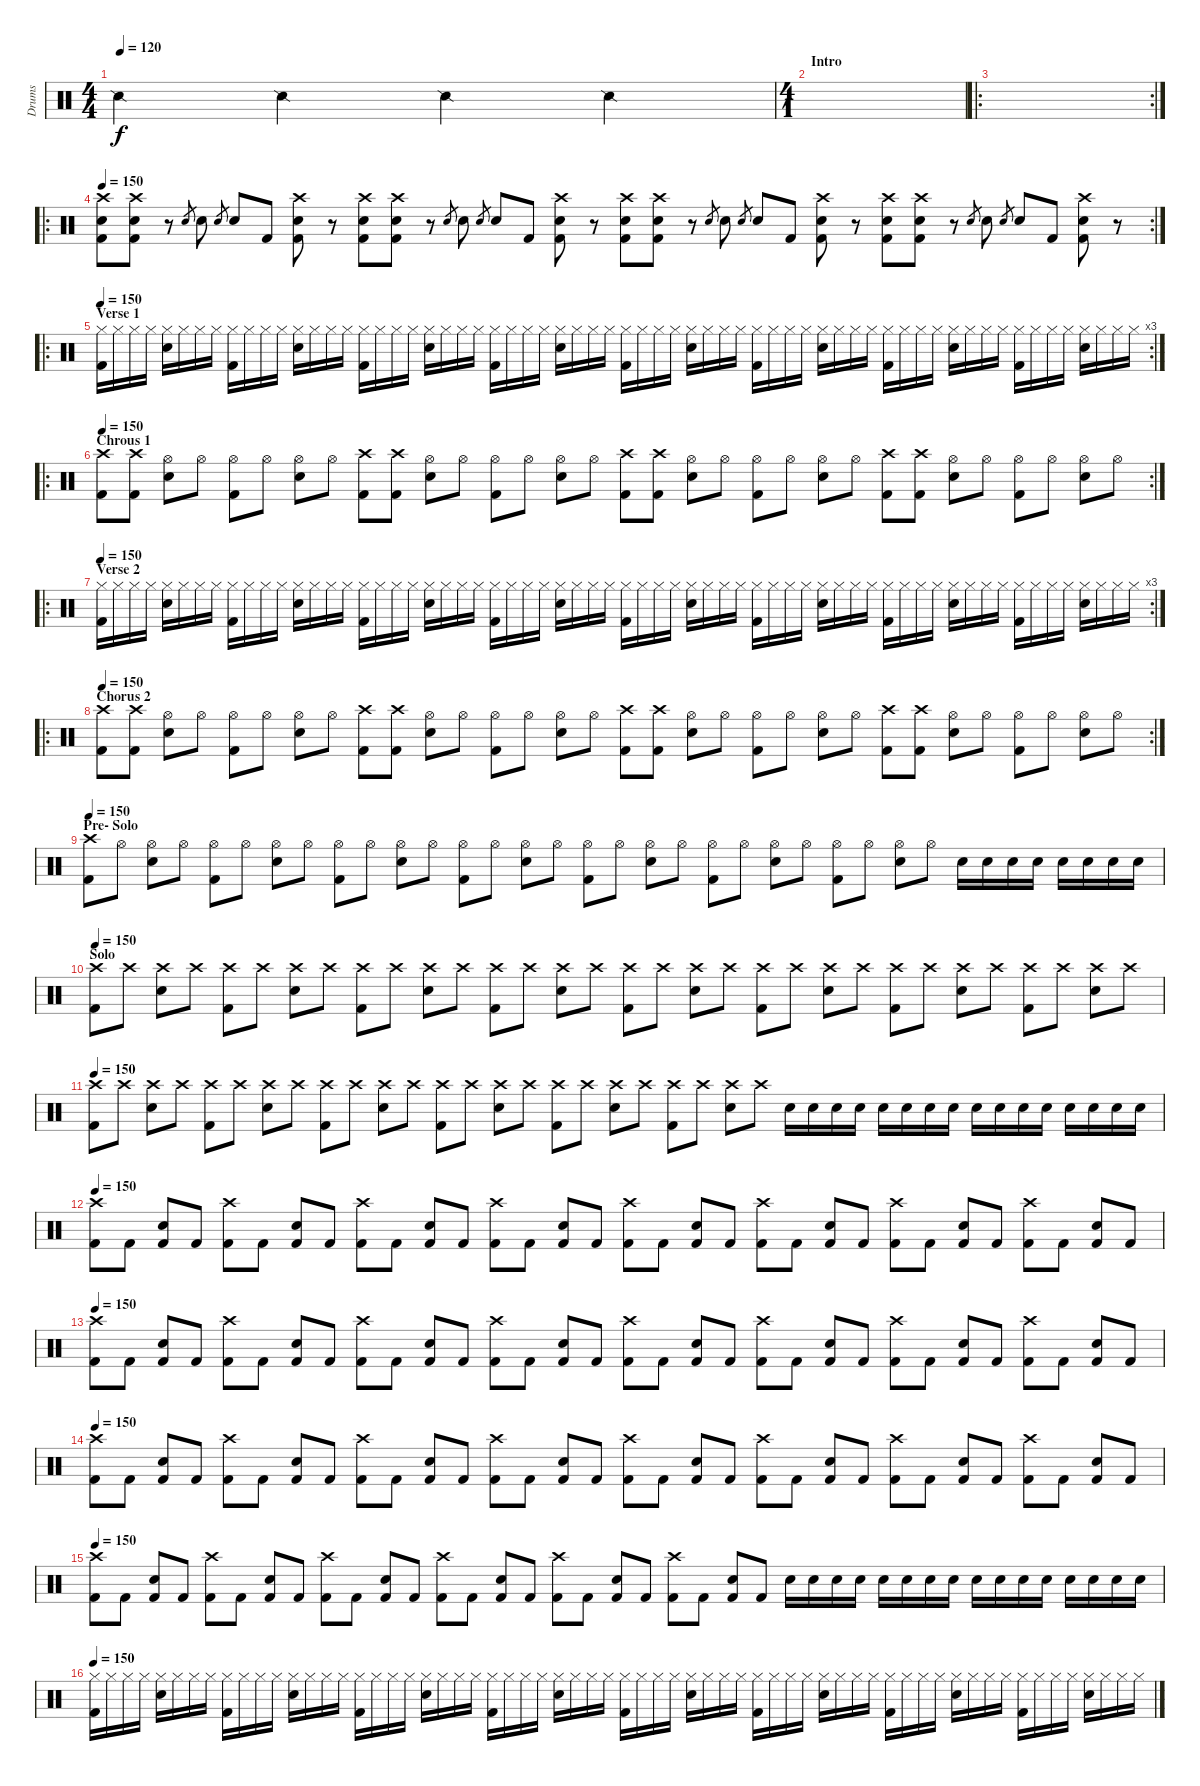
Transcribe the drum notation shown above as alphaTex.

\track ("Drums" "Drums") {instrument percussion}
\staff {score}
\articulation defaults
\ts (4 4)
\tempo 120
\clef neutral
\ks c "Snare (side stick) 2".4{dy f} "Snare (side stick) 2".4 "Snare (side stick) 2".4 "Snare (side stick) 2".4
|
\ts (4 1)
\section ("" "Intro")
|
\ro
\rc 2
|
\ro
\rc 2
\tempo 150
("Crash high (hit)" "Electric Snare (hit)" "Kick (hit) 2").8 ("Crash high (hit)" "Electric Snare (hit)" "Kick (hit) 2").8 r.8 "Electric Snare (hit)".8{gr} "Electric Snare (hit)".8 "Electric Snare (hit)".8{gr} "Electric Snare (hit)".8 "Kick (hit) 2".8 ("Crash high (hit)" "Kick (hit) 2" "Electric Snare (hit)").8 r.8 ("Crash high (hit)" "Electric Snare (hit)" "Kick (hit) 2").8 ("Crash high (hit)" "Electric Snare (hit)" "Kick (hit) 2").8 r.8 "Electric Snare (hit)".8{gr} "Electric Snare (hit)".8 "Electric Snare (hit)".8{gr} "Electric Snare (hit)".8 "Kick (hit) 2".8 ("Crash high (hit)" "Kick (hit) 2" "Electric Snare (hit)").8 r.8 ("Crash high (hit)" "Electric Snare (hit)" "Kick (hit) 2").8 ("Crash high (hit)" "Electric Snare (hit)" "Kick (hit) 2").8 r.8 "Electric Snare (hit)".8{gr} "Electric Snare (hit)".8 "Electric Snare (hit)".8{gr} "Electric Snare (hit)".8 "Kick (hit) 2".8 ("Crash high (hit)" "Kick (hit) 2" "Electric Snare (hit)").8 r.8 ("Crash high (hit)" "Electric Snare (hit)" "Kick (hit) 2").8 ("Crash high (hit)" "Electric Snare (hit)" "Kick (hit) 2").8 r.8 "Electric Snare (hit)".8{gr} "Electric Snare (hit)".8 "Electric Snare (hit)".8{gr} "Electric Snare (hit)".8 "Kick (hit) 2".8 ("Crash high (hit)" "Electric Snare (hit)" "Kick (hit) 2").8 r.8 |
\ro
\rc 3
\section ("" "Verse 1")
\tempo 150
("Hi-Hat (closed)" "Kick (hit) 2").16 "Hi-Hat (closed)".16 "Hi-Hat (closed)".16 "Hi-Hat (closed)".16 ("Hi-Hat (closed)" "Electric Snare (hit)").16 "Hi-Hat (closed)".16 "Hi-Hat (closed)".16 "Hi-Hat (closed)".16 ("Hi-Hat (closed)" "Kick (hit) 2").16 "Hi-Hat (closed)".16 "Hi-Hat (closed)".16 "Hi-Hat (closed)".16 ("Hi-Hat (closed)" "Electric Snare (hit)").16 "Hi-Hat (closed)".16 "Hi-Hat (closed)".16 "Hi-Hat (closed)".16 ("Hi-Hat (closed)" "Kick (hit) 2").16 "Hi-Hat (closed)".16 "Hi-Hat (closed)".16 "Hi-Hat (closed)".16 ("Hi-Hat (closed)" "Electric Snare (hit)").16 "Hi-Hat (closed)".16 "Hi-Hat (closed)".16 "Hi-Hat (closed)".16 ("Hi-Hat (closed)" "Kick (hit) 2").16 "Hi-Hat (closed)".16 "Hi-Hat (closed)".16 "Hi-Hat (closed)".16 ("Hi-Hat (closed)" "Electric Snare (hit)").16 "Hi-Hat (closed)".16 "Hi-Hat (closed)".16 "Hi-Hat (closed)".16 ("Hi-Hat (closed)" "Kick (hit) 2").16 "Hi-Hat (closed)".16 "Hi-Hat (closed)".16 "Hi-Hat (closed)".16 ("Hi-Hat (closed)" "Electric Snare (hit)").16 "Hi-Hat (closed)".16 "Hi-Hat (closed)".16 "Hi-Hat (closed)".16 ("Hi-Hat (closed)" "Kick (hit) 2").16 "Hi-Hat (closed)".16 "Hi-Hat (closed)".16 "Hi-Hat (closed)".16 ("Hi-Hat (closed)" "Electric Snare (hit)").16 "Hi-Hat (closed)".16 "Hi-Hat (closed)".16 "Hi-Hat (closed)".16 ("Hi-Hat (closed)" "Kick (hit) 2").16 "Hi-Hat (closed)".16 "Hi-Hat (closed)".16 "Hi-Hat (closed)".16 ("Hi-Hat (closed)" "Electric Snare (hit)").16 "Hi-Hat (closed)".16 "Hi-Hat (closed)".16 "Hi-Hat (closed)".16 ("Hi-Hat (closed)" "Kick (hit) 2").16 "Hi-Hat (closed)".16 "Hi-Hat (closed)".16 "Hi-Hat (closed)".16 ("Hi-Hat (closed)" "Electric Snare (hit)").16 "Hi-Hat (closed)".16 "Hi-Hat (closed)".16 "Hi-Hat (closed)".16 |
\ro
\rc 2
\section ("" "Chrous 1")
\tempo 150
("Crash high (hit)" "Kick (hit) 2").8 ("Crash high (hit)" "Kick (hit) 2").8 ("Hi-Hat (open)" "Electric Snare (hit)").8 "Hi-Hat (open)".8 ("Hi-Hat (open)" "Kick (hit) 2").8 "Hi-Hat (open)".8 ("Hi-Hat (open)" "Electric Snare (hit)").8 "Hi-Hat (open)".8 ("Crash high (hit)" "Kick (hit) 2").8 ("Crash high (hit)" "Kick (hit) 2").8 ("Hi-Hat (open)" "Electric Snare (hit)").8 "Hi-Hat (open)".8 ("Hi-Hat (open)" "Kick (hit) 2").8 "Hi-Hat (open)".8 ("Hi-Hat (open)" "Electric Snare (hit)").8 "Hi-Hat (open)".8 ("Crash high (hit)" "Kick (hit) 2").8 ("Crash high (hit)" "Kick (hit) 2").8 ("Hi-Hat (open)" "Electric Snare (hit)").8 "Hi-Hat (open)".8 ("Hi-Hat (open)" "Kick (hit) 2").8 "Hi-Hat (open)".8 ("Hi-Hat (open)" "Electric Snare (hit)").8 "Hi-Hat (open)".8 ("Crash high (hit)" "Kick (hit) 2").8 ("Crash high (hit)" "Kick (hit) 2").8 ("Hi-Hat (open)" "Electric Snare (hit)").8 "Hi-Hat (open)".8 ("Hi-Hat (open)" "Kick (hit) 2").8 "Hi-Hat (open)".8 ("Hi-Hat (open)" "Electric Snare (hit)").8 "Hi-Hat (open)".8 |
\ro
\rc 3
\section ("" "Verse 2")
\tempo 150
("Hi-Hat (closed)" "Kick (hit) 2").16 "Hi-Hat (closed)".16 "Hi-Hat (closed)".16 "Hi-Hat (closed)".16 ("Hi-Hat (closed)" "Electric Snare (hit)").16 "Hi-Hat (closed)".16 "Hi-Hat (closed)".16 "Hi-Hat (closed)".16 ("Hi-Hat (closed)" "Kick (hit) 2").16 "Hi-Hat (closed)".16 "Hi-Hat (closed)".16 "Hi-Hat (closed)".16 ("Hi-Hat (closed)" "Electric Snare (hit)").16 "Hi-Hat (closed)".16 "Hi-Hat (closed)".16 "Hi-Hat (closed)".16 ("Hi-Hat (closed)" "Kick (hit) 2").16 "Hi-Hat (closed)".16 "Hi-Hat (closed)".16 "Hi-Hat (closed)".16 ("Hi-Hat (closed)" "Electric Snare (hit)").16 "Hi-Hat (closed)".16 "Hi-Hat (closed)".16 "Hi-Hat (closed)".16 ("Hi-Hat (closed)" "Kick (hit) 2").16 "Hi-Hat (closed)".16 "Hi-Hat (closed)".16 "Hi-Hat (closed)".16 ("Hi-Hat (closed)" "Electric Snare (hit)").16 "Hi-Hat (closed)".16 "Hi-Hat (closed)".16 "Hi-Hat (closed)".16 ("Hi-Hat (closed)" "Kick (hit) 2").16 "Hi-Hat (closed)".16 "Hi-Hat (closed)".16 "Hi-Hat (closed)".16 ("Hi-Hat (closed)" "Electric Snare (hit)").16 "Hi-Hat (closed)".16 "Hi-Hat (closed)".16 "Hi-Hat (closed)".16 ("Hi-Hat (closed)" "Kick (hit) 2").16 "Hi-Hat (closed)".16 "Hi-Hat (closed)".16 "Hi-Hat (closed)".16 ("Hi-Hat (closed)" "Electric Snare (hit)").16 "Hi-Hat (closed)".16 "Hi-Hat (closed)".16 "Hi-Hat (closed)".16 ("Hi-Hat (closed)" "Kick (hit) 2").16 "Hi-Hat (closed)".16 "Hi-Hat (closed)".16 "Hi-Hat (closed)".16 ("Hi-Hat (closed)" "Electric Snare (hit)").16 "Hi-Hat (closed)".16 "Hi-Hat (closed)".16 "Hi-Hat (closed)".16 ("Hi-Hat (closed)" "Kick (hit) 2").16 "Hi-Hat (closed)".16 "Hi-Hat (closed)".16 "Hi-Hat (closed)".16 ("Hi-Hat (closed)" "Electric Snare (hit)").16 "Hi-Hat (closed)".16 "Hi-Hat (closed)".16 "Hi-Hat (closed)".16 |
\ro
\rc 2
\section ("" "Chorus 2")
\tempo 150
("Crash high (hit)" "Kick (hit) 2").8 ("Crash high (hit)" "Kick (hit) 2").8 ("Hi-Hat (open)" "Electric Snare (hit)").8 "Hi-Hat (open)".8 ("Hi-Hat (open)" "Kick (hit) 2").8 "Hi-Hat (open)".8 ("Hi-Hat (open)" "Electric Snare (hit)").8 "Hi-Hat (open)".8 ("Crash high (hit)" "Kick (hit) 2").8 ("Crash high (hit)" "Kick (hit) 2").8 ("Hi-Hat (open)" "Electric Snare (hit)").8 "Hi-Hat (open)".8 ("Hi-Hat (open)" "Kick (hit) 2").8 "Hi-Hat (open)".8 ("Hi-Hat (open)" "Electric Snare (hit)").8 "Hi-Hat (open)".8 ("Crash high (hit)" "Kick (hit) 2").8 ("Crash high (hit)" "Kick (hit) 2").8 ("Hi-Hat (open)" "Electric Snare (hit)").8 "Hi-Hat (open)".8 ("Hi-Hat (open)" "Kick (hit) 2").8 "Hi-Hat (open)".8 ("Hi-Hat (open)" "Electric Snare (hit)").8 "Hi-Hat (open)".8 ("Crash high (hit)" "Kick (hit) 2").8 ("Crash high (hit)" "Kick (hit) 2").8 ("Hi-Hat (open)" "Electric Snare (hit)").8 "Hi-Hat (open)".8 ("Hi-Hat (open)" "Kick (hit) 2").8 "Hi-Hat (open)".8 ("Hi-Hat (open)" "Electric Snare (hit)").8 "Hi-Hat (open)".8 |
\section ("" "Pre- Solo")
\tempo 150
("Crash high (hit)" "Kick (hit) 2").8 "Hi-Hat (open)".8 ("Hi-Hat (open)" "Electric Snare (hit)").8 "Hi-Hat (open)".8 ("Hi-Hat (open)" "Kick (hit) 2").8 "Hi-Hat (open)".8 ("Hi-Hat (open)" "Electric Snare (hit)").8 "Hi-Hat (open)".8 ("Hi-Hat (open)" "Kick (hit) 2").8 "Hi-Hat (open)".8 ("Hi-Hat (open)" "Electric Snare (hit)").8 "Hi-Hat (open)".8 ("Hi-Hat (open)" "Kick (hit) 2").8 "Hi-Hat (open)".8 ("Hi-Hat (open)" "Electric Snare (hit)").8 "Hi-Hat (open)".8 ("Hi-Hat (open)" "Kick (hit) 2").8 "Hi-Hat (open)".8 ("Hi-Hat (open)" "Electric Snare (hit)").8 "Hi-Hat (open)".8 ("Hi-Hat (open)" "Kick (hit) 2").8 "Hi-Hat (open)".8 ("Hi-Hat (open)" "Electric Snare (hit)").8 "Hi-Hat (open)".8 ("Hi-Hat (open)" "Kick (hit) 2").8 "Hi-Hat (open)".8 ("Hi-Hat (open)" "Electric Snare (hit)").8 "Hi-Hat (open)".8 "Electric Snare (hit)".16 "Electric Snare (hit)".16 "Electric Snare (hit)".16 "Electric Snare (hit)".16 "Electric Snare (hit)".16 "Electric Snare (hit)".16 "Electric Snare (hit)".16 "Electric Snare (hit)".16 |
\section ("" "Solo")
\tempo 150
("Crash high (hit)" "Kick (hit) 2").8 "Crash high (hit)".8 ("Crash high (hit)" "Electric Snare (hit)").8 "Crash high (hit)".8 ("Crash high (hit)" "Kick (hit) 2").8 "Crash high (hit)".8 ("Crash high (hit)" "Electric Snare (hit)").8 "Crash high (hit)".8 ("Crash high (hit)" "Kick (hit) 2").8 "Crash high (hit)".8 ("Crash high (hit)" "Electric Snare (hit)").8 "Crash high (hit)".8 ("Crash high (hit)" "Kick (hit) 2").8 "Crash high (hit)".8 ("Crash high (hit)" "Electric Snare (hit)").8 "Crash high (hit)".8 ("Crash high (hit)" "Kick (hit) 2").8 "Crash high (hit)".8 ("Crash high (hit)" "Electric Snare (hit)").8 "Crash high (hit)".8 ("Crash high (hit)" "Kick (hit) 2").8 "Crash high (hit)".8 ("Crash high (hit)" "Electric Snare (hit)").8 "Crash high (hit)".8 ("Crash high (hit)" "Kick (hit) 2").8 "Crash high (hit)".8 ("Crash high (hit)" "Electric Snare (hit)").8 "Crash high (hit)".8 ("Crash high (hit)" "Kick (hit) 2").8 "Crash high (hit)".8 ("Crash high (hit)" "Electric Snare (hit)").8 "Crash high (hit)".8 |
\tempo 150
("Crash high (hit)" "Kick (hit) 2").8 "Crash high (hit)".8 ("Crash high (hit)" "Electric Snare (hit)").8 "Crash high (hit)".8 ("Crash high (hit)" "Kick (hit) 2").8 "Crash high (hit)".8 ("Crash high (hit)" "Electric Snare (hit)").8 "Crash high (hit)".8 ("Crash high (hit)" "Kick (hit) 2").8 "Crash high (hit)".8 ("Crash high (hit)" "Electric Snare (hit)").8 "Crash high (hit)".8 ("Crash high (hit)" "Kick (hit) 2").8 "Crash high (hit)".8 ("Crash high (hit)" "Electric Snare (hit)").8 "Crash high (hit)".8 ("Crash high (hit)" "Kick (hit) 2").8 "Crash high (hit)".8 ("Crash high (hit)" "Electric Snare (hit)").8 "Crash high (hit)".8 ("Crash high (hit)" "Kick (hit) 2").8 "Crash high (hit)".8 ("Crash high (hit)" "Electric Snare (hit)").8 "Crash high (hit)".8 "Electric Snare (hit)".16 "Electric Snare (hit)".16 "Electric Snare (hit)".16 "Electric Snare (hit)".16 "Electric Snare (hit)".16 "Electric Snare (hit)".16 "Electric Snare (hit)".16 "Electric Snare (hit)".16 "Electric Snare (hit)".16 "Electric Snare (hit)".16 "Electric Snare (hit)".16 "Electric Snare (hit)".16 "Electric Snare (hit)".16 "Electric Snare (hit)".16 "Electric Snare (hit)".16 "Electric Snare (hit)".16 |
\tempo 150
("Kick (hit) 2" "Crash high (hit)").8 "Kick (hit) 2".8 ("Kick (hit) 2" "Electric Snare (hit)").8 "Kick (hit) 2".8 ("Kick (hit) 2" "Crash high (hit)").8 "Kick (hit) 2".8 ("Kick (hit) 2" "Electric Snare (hit)").8 "Kick (hit) 2".8 ("Kick (hit) 2" "Crash high (hit)").8 "Kick (hit) 2".8 ("Kick (hit) 2" "Electric Snare (hit)").8 "Kick (hit) 2".8 ("Kick (hit) 2" "Crash high (hit)").8 "Kick (hit) 2".8 ("Kick (hit) 2" "Electric Snare (hit)").8 "Kick (hit) 2".8 ("Kick (hit) 2" "Crash high (hit)").8 "Kick (hit) 2".8 ("Kick (hit) 2" "Electric Snare (hit)").8 "Kick (hit) 2".8 ("Kick (hit) 2" "Crash high (hit)").8 "Kick (hit) 2".8 ("Kick (hit) 2" "Electric Snare (hit)").8 "Kick (hit) 2".8 ("Kick (hit) 2" "Crash high (hit)").8 "Kick (hit) 2".8 ("Kick (hit) 2" "Electric Snare (hit)").8 "Kick (hit) 2".8 ("Kick (hit) 2" "Crash high (hit)").8 "Kick (hit) 2".8 ("Kick (hit) 2" "Electric Snare (hit)").8 "Kick (hit) 2".8 |
\tempo 150
("Kick (hit) 2" "Crash high (hit)").8 "Kick (hit) 2".8 ("Kick (hit) 2" "Electric Snare (hit)").8 "Kick (hit) 2".8 ("Kick (hit) 2" "Crash high (hit)").8 "Kick (hit) 2".8 ("Kick (hit) 2" "Electric Snare (hit)").8 "Kick (hit) 2".8 ("Kick (hit) 2" "Crash high (hit)").8 "Kick (hit) 2".8 ("Kick (hit) 2" "Electric Snare (hit)").8 "Kick (hit) 2".8 ("Kick (hit) 2" "Crash high (hit)").8 "Kick (hit) 2".8 ("Kick (hit) 2" "Electric Snare (hit)").8 "Kick (hit) 2".8 ("Kick (hit) 2" "Crash high (hit)").8 "Kick (hit) 2".8 ("Kick (hit) 2" "Electric Snare (hit)").8 "Kick (hit) 2".8 ("Kick (hit) 2" "Crash high (hit)").8 "Kick (hit) 2".8 ("Kick (hit) 2" "Electric Snare (hit)").8 "Kick (hit) 2".8 ("Kick (hit) 2" "Crash high (hit)").8 "Kick (hit) 2".8 ("Kick (hit) 2" "Electric Snare (hit)").8 "Kick (hit) 2".8 ("Kick (hit) 2" "Crash high (hit)").8 "Kick (hit) 2".8 ("Kick (hit) 2" "Electric Snare (hit)").8 "Kick (hit) 2".8 |
\tempo 150
("Kick (hit) 2" "Crash high (hit)").8 "Kick (hit) 2".8 ("Kick (hit) 2" "Electric Snare (hit)").8 "Kick (hit) 2".8 ("Kick (hit) 2" "Crash high (hit)").8 "Kick (hit) 2".8 ("Kick (hit) 2" "Electric Snare (hit)").8 "Kick (hit) 2".8 ("Kick (hit) 2" "Crash high (hit)").8 "Kick (hit) 2".8 ("Kick (hit) 2" "Electric Snare (hit)").8 "Kick (hit) 2".8 ("Kick (hit) 2" "Crash high (hit)").8 "Kick (hit) 2".8 ("Kick (hit) 2" "Electric Snare (hit)").8 "Kick (hit) 2".8 ("Kick (hit) 2" "Crash high (hit)").8 "Kick (hit) 2".8 ("Kick (hit) 2" "Electric Snare (hit)").8 "Kick (hit) 2".8 ("Kick (hit) 2" "Crash high (hit)").8 "Kick (hit) 2".8 ("Kick (hit) 2" "Electric Snare (hit)").8 "Kick (hit) 2".8 ("Kick (hit) 2" "Crash high (hit)").8 "Kick (hit) 2".8 ("Kick (hit) 2" "Electric Snare (hit)").8 "Kick (hit) 2".8 ("Kick (hit) 2" "Crash high (hit)").8 "Kick (hit) 2".8 ("Kick (hit) 2" "Electric Snare (hit)").8 "Kick (hit) 2".8 |
\tempo 150
("Kick (hit) 2" "Crash high (hit)").8 "Kick (hit) 2".8 ("Kick (hit) 2" "Electric Snare (hit)").8 "Kick (hit) 2".8 ("Kick (hit) 2" "Crash high (hit)").8 "Kick (hit) 2".8 ("Kick (hit) 2" "Electric Snare (hit)").8 "Kick (hit) 2".8 ("Kick (hit) 2" "Crash high (hit)").8 "Kick (hit) 2".8 ("Kick (hit) 2" "Electric Snare (hit)").8 "Kick (hit) 2".8 ("Kick (hit) 2" "Crash high (hit)").8 "Kick (hit) 2".8 ("Kick (hit) 2" "Electric Snare (hit)").8 "Kick (hit) 2".8 ("Kick (hit) 2" "Crash high (hit)").8 "Kick (hit) 2".8 ("Kick (hit) 2" "Electric Snare (hit)").8 "Kick (hit) 2".8 ("Kick (hit) 2" "Crash high (hit)").8 "Kick (hit) 2".8 ("Kick (hit) 2" "Electric Snare (hit)").8 "Kick (hit) 2".8 "Electric Snare (hit)".16 "Electric Snare (hit)".16 "Electric Snare (hit)".16 "Electric Snare (hit)".16 "Electric Snare (hit)".16 "Electric Snare (hit)".16 "Electric Snare (hit)".16 "Electric Snare (hit)".16 "Electric Snare (hit)".16 "Electric Snare (hit)".16 "Electric Snare (hit)".16 "Electric Snare (hit)".16 "Electric Snare (hit)".16 "Electric Snare (hit)".16 "Electric Snare (hit)".16 "Electric Snare (hit)".16 |
\tempo 150
("Hi-Hat (closed)" "Kick (hit) 2").16 "Hi-Hat (closed)".16 "Hi-Hat (closed)".16 "Hi-Hat (closed)".16 ("Hi-Hat (closed)" "Electric Snare (hit)").16 "Hi-Hat (closed)".16 "Hi-Hat (closed)".16 "Hi-Hat (closed)".16 ("Hi-Hat (closed)" "Kick (hit) 2").16 "Hi-Hat (closed)".16 "Hi-Hat (closed)".16 "Hi-Hat (closed)".16 ("Hi-Hat (closed)" "Electric Snare (hit)").16 "Hi-Hat (closed)".16 "Hi-Hat (closed)".16 "Hi-Hat (closed)".16 ("Hi-Hat (closed)" "Kick (hit) 2").16 "Hi-Hat (closed)".16 "Hi-Hat (closed)".16 "Hi-Hat (closed)".16 ("Hi-Hat (closed)" "Electric Snare (hit)").16 "Hi-Hat (closed)".16 "Hi-Hat (closed)".16 "Hi-Hat (closed)".16 ("Hi-Hat (closed)" "Kick (hit) 2").16 "Hi-Hat (closed)".16 "Hi-Hat (closed)".16 "Hi-Hat (closed)".16 ("Hi-Hat (closed)" "Electric Snare (hit)").16 "Hi-Hat (closed)".16 "Hi-Hat (closed)".16 "Hi-Hat (closed)".16 ("Hi-Hat (closed)" "Kick (hit) 2").16 "Hi-Hat (closed)".16 "Hi-Hat (closed)".16 "Hi-Hat (closed)".16 ("Hi-Hat (closed)" "Electric Snare (hit)").16 "Hi-Hat (closed)".16 "Hi-Hat (closed)".16 "Hi-Hat (closed)".16 ("Hi-Hat (closed)" "Kick (hit) 2").16 "Hi-Hat (closed)".16 "Hi-Hat (closed)".16 "Hi-Hat (closed)".16 ("Hi-Hat (closed)" "Electric Snare (hit)").16 "Hi-Hat (closed)".16 "Hi-Hat (closed)".16 "Hi-Hat (closed)".16 ("Hi-Hat (closed)" "Kick (hit) 2").16 "Hi-Hat (closed)".16 "Hi-Hat (closed)".16 "Hi-Hat (closed)".16 ("Hi-Hat (closed)" "Electric Snare (hit)").16 "Hi-Hat (closed)".16 "Hi-Hat (closed)".16 "Hi-Hat (closed)".16 ("Hi-Hat (closed)" "Kick (hit) 2").16 "Hi-Hat (closed)".16 "Hi-Hat (closed)".16 "Hi-Hat (closed)".16 ("Hi-Hat (closed)" "Electric Snare (hit)").16 "Hi-Hat (closed)".16 "Hi-Hat (closed)".16 "Hi-Hat (closed)".16
